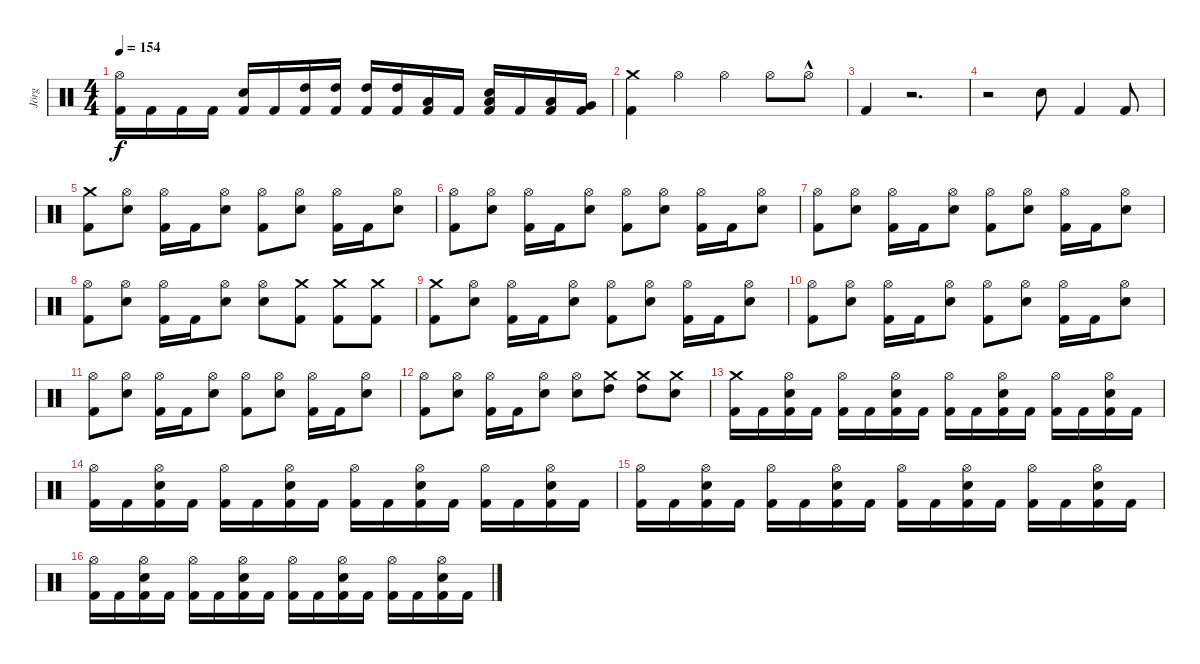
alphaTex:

\track ("Jörg" "Jörg") {instrument percussion}
\staff {score}
\articulation defaults
\ts (4 4)
\tempo 154
\clef neutral
\ks c
("Hi-Hat (open)" "Kick (hit) 2").16{dy f} "Kick (hit) 2".16 "Kick (hit) 2".16 "Kick (hit) 2".16 ("Snare (hit) 2" "Kick (hit) 2").16 "Kick (hit) 2".16 ("High Tom (hit)" "Kick (hit) 2").16 ("High Tom (hit)" "Kick (hit) 2").16 ("High Tom (hit)" "Kick (hit) 2").16 ("High Tom (hit)" "Kick (hit) 2").16 ("Low Tom (hit)" "Kick (hit) 2").16 "Kick (hit) 2".16 ("Low Tom (hit)" "Snare (hit) 2" "Kick (hit) 2").16 "Kick (hit) 2".16 ("Low Floor Tom (hit)" "Kick (hit) 2").16 ("Very Low Tom (hit)" "Kick (hit) 2").16 |
("Crash medium (hit)" "Kick (hit) 2").4 "Hi-Hat (open)".4 "Hi-Hat (open)".4 "Hi-Hat (open)".8 "Hi-Hat (open)"{hac}.8 |
"Kick (hit) 2".4 r.2{d} |
r.2 "Snare (hit) 2".8 "Kick (hit) 2".4 "Kick (hit) 2".8 |
("Kick (hit) 2" "Crash medium (hit)").8 ("Snare (hit) 2" "Hi-Hat (open)").8 ("Kick (hit) 2" "Hi-Hat (open)").16 "Kick (hit) 2".16 ("Snare (hit) 2" "Hi-Hat (open)").8 ("Kick (hit) 2" "Hi-Hat (open)").8 ("Snare (hit) 2" "Hi-Hat (open)").8 ("Kick (hit) 2" "Hi-Hat (open)").16 "Kick (hit) 2".16 ("Snare (hit) 2" "Hi-Hat (open)").8 |
("Hi-Hat (open)" "Kick (hit) 2").8 ("Snare (hit) 2" "Hi-Hat (open)").8 ("Kick (hit) 2" "Hi-Hat (open)").16 "Kick (hit) 2".16 ("Snare (hit) 2" "Hi-Hat (open)").8 ("Kick (hit) 2" "Hi-Hat (open)").8 ("Snare (hit) 2" "Hi-Hat (open)").8 ("Kick (hit) 2" "Hi-Hat (open)").16 "Kick (hit) 2".16 ("Snare (hit) 2" "Hi-Hat (open)").8 |
("Hi-Hat (open)" "Kick (hit) 2").8 ("Snare (hit) 2" "Hi-Hat (open)").8 ("Kick (hit) 2" "Hi-Hat (open)").16 "Kick (hit) 2".16 ("Snare (hit) 2" "Hi-Hat (open)").8 ("Kick (hit) 2" "Hi-Hat (open)").8 ("Snare (hit) 2" "Hi-Hat (open)").8 ("Kick (hit) 2" "Hi-Hat (open)").16 "Kick (hit) 2".16 ("Snare (hit) 2" "Hi-Hat (open)").8 |
("Hi-Hat (open)" "Kick (hit) 2").8 ("Snare (hit) 2" "Hi-Hat (open)").8 ("Kick (hit) 2" "Hi-Hat (open)").16 "Kick (hit) 2".16 ("Snare (hit) 2" "Hi-Hat (open)").8 ("Snare (hit) 2" "Hi-Hat (open)").8 ("Kick (hit) 2" "Crash medium (hit)").8 ("Kick (hit) 2" "Crash medium (hit)").8 ("Kick (hit) 2" "Crash medium (hit)").8 |
("Kick (hit) 2" "Crash medium (hit)").8 ("Snare (hit) 2" "Hi-Hat (open)").8 ("Kick (hit) 2" "Hi-Hat (open)").16 "Kick (hit) 2".16 ("Snare (hit) 2" "Hi-Hat (open)").8 ("Kick (hit) 2" "Hi-Hat (open)").8 ("Snare (hit) 2" "Hi-Hat (open)").8 ("Kick (hit) 2" "Hi-Hat (open)").16 "Kick (hit) 2".16 ("Snare (hit) 2" "Hi-Hat (open)").8 |
("Hi-Hat (open)" "Kick (hit) 2").8 ("Snare (hit) 2" "Hi-Hat (open)").8 ("Kick (hit) 2" "Hi-Hat (open)").16 "Kick (hit) 2".16 ("Snare (hit) 2" "Hi-Hat (open)").8 ("Kick (hit) 2" "Hi-Hat (open)").8 ("Snare (hit) 2" "Hi-Hat (open)").8 ("Kick (hit) 2" "Hi-Hat (open)").16 "Kick (hit) 2".16 ("Snare (hit) 2" "Hi-Hat (open)").8 |
("Hi-Hat (open)" "Kick (hit) 2").8 ("Snare (hit) 2" "Hi-Hat (open)").8 ("Kick (hit) 2" "Hi-Hat (open)").16 "Kick (hit) 2".16 ("Snare (hit) 2" "Hi-Hat (open)").8 ("Kick (hit) 2" "Hi-Hat (open)").8 ("Snare (hit) 2" "Hi-Hat (open)").8 ("Kick (hit) 2" "Hi-Hat (open)").16 "Kick (hit) 2".16 ("Snare (hit) 2" "Hi-Hat (open)").8 |
("Hi-Hat (open)" "Kick (hit) 2").8 ("Snare (hit) 2" "Hi-Hat (open)").8 ("Kick (hit) 2" "Hi-Hat (open)").16 "Kick (hit) 2".16 ("Snare (hit) 2" "Hi-Hat (open)").8 ("Snare (hit) 2" "Hi-Hat (open)").8 ("High Tom (hit)" "Crash medium (hit)").8 ("High Tom (hit)" "Crash medium (hit)").8 ("Snare (hit) 2" "Crash medium (hit)").8 |
("Crash medium (hit)" "Kick (hit) 2").16 "Kick (hit) 2".16 ("Snare (hit) 2" "Hi-Hat (open)" "Kick (hit) 2").16 "Kick (hit) 2".16 ("Hi-Hat (open)" "Kick (hit) 2").16 "Kick (hit) 2".16 ("Snare (hit) 2" "Hi-Hat (open)" "Kick (hit) 2").16 "Kick (hit) 2".16 ("Hi-Hat (open)" "Kick (hit) 2").16 "Kick (hit) 2".16 ("Snare (hit) 2" "Hi-Hat (open)" "Kick (hit) 2").16 "Kick (hit) 2".16 ("Hi-Hat (open)" "Kick (hit) 2").16 "Kick (hit) 2".16 ("Snare (hit) 2" "Hi-Hat (open)" "Kick (hit) 2").16 "Kick (hit) 2".16 |
("Hi-Hat (open)" "Kick (hit) 2").16 "Kick (hit) 2".16 ("Snare (hit) 2" "Hi-Hat (open)" "Kick (hit) 2").16 "Kick (hit) 2".16 ("Hi-Hat (open)" "Kick (hit) 2").16 "Kick (hit) 2".16 ("Snare (hit) 2" "Hi-Hat (open)" "Kick (hit) 2").16 "Kick (hit) 2".16 ("Hi-Hat (open)" "Kick (hit) 2").16 "Kick (hit) 2".16 ("Snare (hit) 2" "Hi-Hat (open)" "Kick (hit) 2").16 "Kick (hit) 2".16 ("Hi-Hat (open)" "Kick (hit) 2").16 "Kick (hit) 2".16 ("Snare (hit) 2" "Hi-Hat (open)" "Kick (hit) 2").16 "Kick (hit) 2".16 |
("Hi-Hat (open)" "Kick (hit) 2").16 "Kick (hit) 2".16 ("Snare (hit) 2" "Hi-Hat (open)" "Kick (hit) 2").16 "Kick (hit) 2".16 ("Hi-Hat (open)" "Kick (hit) 2").16 "Kick (hit) 2".16 ("Snare (hit) 2" "Hi-Hat (open)" "Kick (hit) 2").16 "Kick (hit) 2".16 ("Hi-Hat (open)" "Kick (hit) 2").16 "Kick (hit) 2".16 ("Snare (hit) 2" "Hi-Hat (open)" "Kick (hit) 2").16 "Kick (hit) 2".16 ("Hi-Hat (open)" "Kick (hit) 2").16 "Kick (hit) 2".16 ("Snare (hit) 2" "Hi-Hat (open)" "Kick (hit) 2").16 "Kick (hit) 2".16 |
("Hi-Hat (open)" "Kick (hit) 2").16 "Kick (hit) 2".16 ("Snare (hit) 2" "Hi-Hat (open)" "Kick (hit) 2").16 "Kick (hit) 2".16 ("Hi-Hat (open)" "Kick (hit) 2").16 "Kick (hit) 2".16 ("Snare (hit) 2" "Hi-Hat (open)" "Kick (hit) 2").16 "Kick (hit) 2".16 ("Hi-Hat (open)" "Kick (hit) 2").16 "Kick (hit) 2".16 ("Snare (hit) 2" "Hi-Hat (open)" "Kick (hit) 2").16 "Kick (hit) 2".16 ("Hi-Hat (open)" "Kick (hit) 2").16 "Kick (hit) 2".16 ("Snare (hit) 2" "Hi-Hat (open)" "Kick (hit) 2").16 "Kick (hit) 2".16
